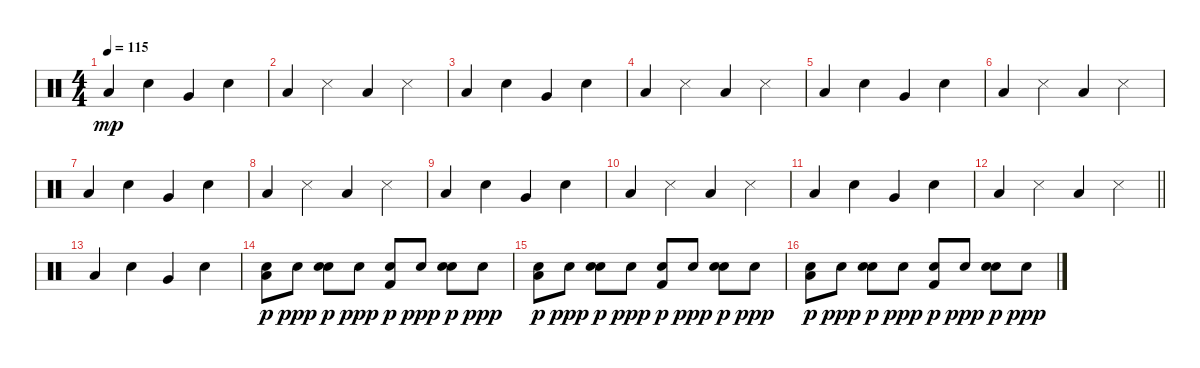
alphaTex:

\track "" {instrument percussion}
\staff {score}
\articulation defaults
\ts (4 4)
\tempo 115
\clef neutral
\ks c "Low Floor Tom (hit)".4{dy mp} "Electric Snare (hit)".4 "Very Low Tom (hit)".4 "Electric Snare (hit)".4
|
"Low Floor Tom (hit)".4 "Snare (side stick) 3".4 "Low Floor Tom (hit)".4 "Snare (side stick) 3".4 |
"Low Floor Tom (hit)".4 "Electric Snare (hit)".4 "Very Low Tom (hit)".4 "Electric Snare (hit)".4 |
"Low Floor Tom (hit)".4 "Snare (side stick) 3".4 "Low Floor Tom (hit)".4 "Snare (side stick) 3".4 |
"Low Floor Tom (hit)".4 "Electric Snare (hit)".4 "Very Low Tom (hit)".4 "Electric Snare (hit)".4 |
"Low Floor Tom (hit)".4 "Snare (side stick) 3".4 "Low Floor Tom (hit)".4 "Snare (side stick) 3".4 |
"Low Floor Tom (hit)".4 "Electric Snare (hit)".4 "Very Low Tom (hit)".4 "Electric Snare (hit)".4 |
"Low Floor Tom (hit)".4 "Snare (side stick) 3".4 "Low Floor Tom (hit)".4 "Snare (side stick) 3".4 |
"Low Floor Tom (hit)".4 "Electric Snare (hit)".4 "Very Low Tom (hit)".4 "Electric Snare (hit)".4 |
"Low Floor Tom (hit)".4 "Snare (side stick) 3".4 "Low Floor Tom (hit)".4 "Snare (side stick) 3".4 |
"Low Floor Tom (hit)".4 "Electric Snare (hit)".4 "Very Low Tom (hit)".4 "Electric Snare (hit)".4 |
\barLineRight lightlight "Low Floor Tom (hit)".4 "Snare (side stick) 3".4 "Low Floor Tom (hit)".4 "Snare (side stick) 3".4
|
\section ("" "")
"Low Floor Tom (hit)".4 "Electric Snare (hit)".4 "Very Low Tom (hit)".4 "Electric Snare (hit)".4 |
("Snare (hit) 2" "Low Floor Tom (hit)").8{dy p} "Electric Snare (hit)".8{dy ppp} ("Hand Clap (hit)" "Snare (hit) 2").8{dy p} "Snare (hit) 2".8{dy ppp} ("Kick (hit) 2" "Snare (hit) 2").8{dy p} "Snare (hit) 2".8{dy ppp} ("Snare (hit) 2" "Hand Clap (hit)").8{dy p} "Snare (hit) 2".8{dy ppp} |
("Snare (hit) 2" "Low Floor Tom (hit)").8{dy p} "Electric Snare (hit)".8{dy ppp} ("Hand Clap (hit)" "Snare (hit) 2").8{dy p} "Snare (hit) 2".8{dy ppp} ("Kick (hit) 2" "Snare (hit) 2").8{dy p} "Snare (hit) 2".8{dy ppp} ("Snare (hit) 2" "Hand Clap (hit)").8{dy p} "Snare (hit) 2".8{dy ppp} |
("Snare (hit) 2" "Low Floor Tom (hit)").8{dy p} "Electric Snare (hit)".8{dy ppp} ("Hand Clap (hit)" "Snare (hit) 2").8{dy p} "Snare (hit) 2".8{dy ppp} ("Kick (hit) 2" "Snare (hit) 2").8{dy p} "Snare (hit) 2".8{dy ppp} ("Snare (hit) 2" "Hand Clap (hit)").8{dy p} "Snare (hit) 2".8{dy ppp}
